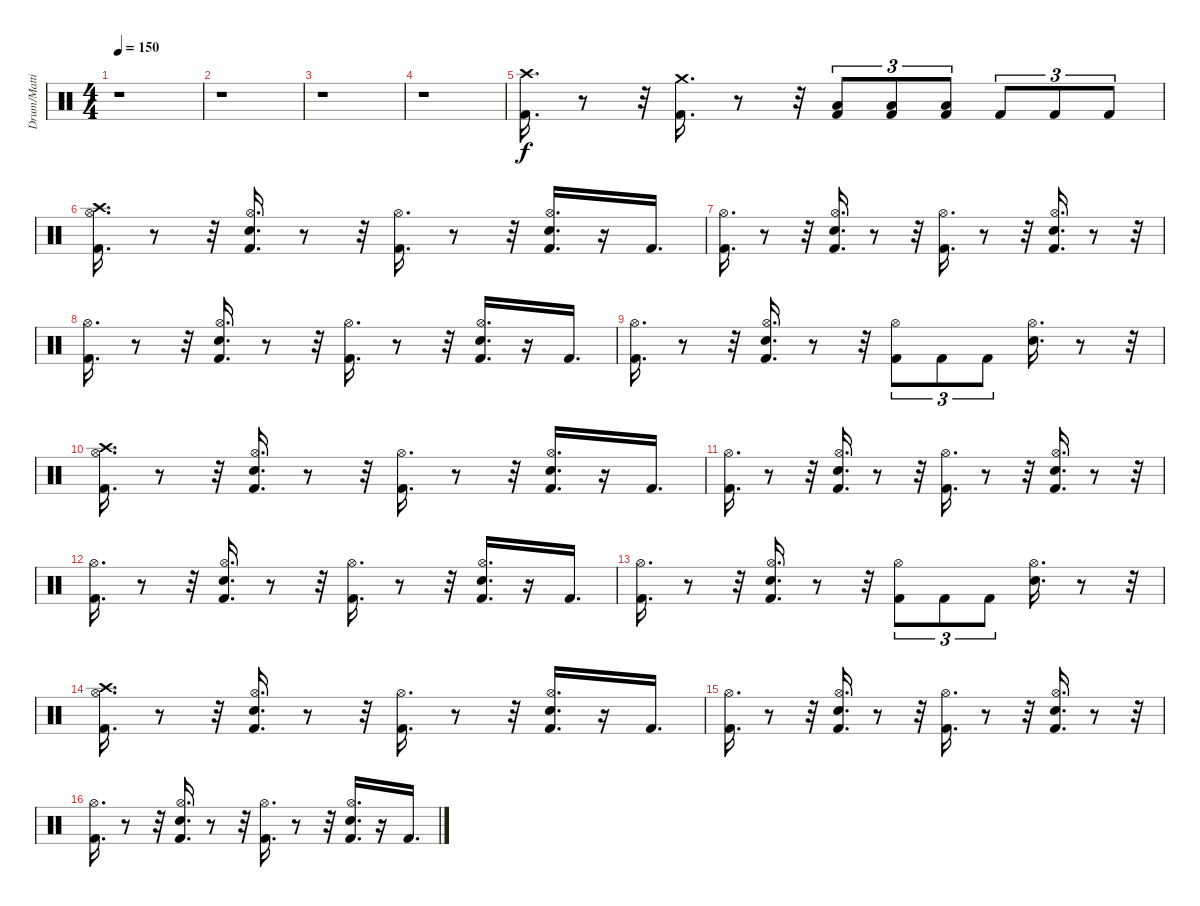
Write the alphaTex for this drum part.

\track ("Drum/Matti" "Drum/Matti") {instrument percussion}
\staff {score}
\articulation defaults
\ts (4 4)
\tempo 150
\clef neutral
\ks c
r.1{dy f} |
r.1 |
r.1 |
r.1 |
("Kick (hit) 2" "Crash high (hit)").16{d} r.8 r.32 ("Kick (hit) 2" "Crash medium (hit)").16{d} r.8 r.32 ("Kick (hit) 2" "Low Tom (hit)").8{tu (3 2)} ("Kick (hit) 2" "Low Tom (hit)").8{tu (3 2)} ("Kick (hit) 2" "Low Tom (hit)").8{tu (3 2)} "Kick (hit) 2".8{tu (3 2)} "Kick (hit) 2".8{tu (3 2)} "Kick (hit) 2".8{tu (3 2)} |
("Kick (hit) 2" "Hi-Hat (open)" "Crash high (hit)").16{d} r.8 r.32 ("Kick (hit) 2" "Hi-Hat (open)" "Electric Snare (hit)").16{d} r.8 r.32 ("Kick (hit) 2" "Hi-Hat (open)").16{d} r.8 r.32 ("Kick (hit) 2" "Hi-Hat (open)" "Electric Snare (hit)").16{d} r.16 "Kick (hit) 2".16{d} |
("Kick (hit) 2" "Hi-Hat (open)").16{d} r.8 r.32 ("Kick (hit) 2" "Hi-Hat (open)" "Electric Snare (hit)").16{d} r.8 r.32 ("Kick (hit) 2" "Hi-Hat (open)").16{d} r.8 r.32 ("Kick (hit) 2" "Hi-Hat (open)" "Electric Snare (hit)").16{d} r.8 r.32 |
("Kick (hit) 2" "Hi-Hat (open)").16{d} r.8 r.32 ("Kick (hit) 2" "Hi-Hat (open)" "Electric Snare (hit)").16{d} r.8 r.32 ("Kick (hit) 2" "Hi-Hat (open)").16{d} r.8 r.32 ("Kick (hit) 2" "Hi-Hat (open)" "Electric Snare (hit)").16{d} r.16 "Kick (hit) 2".16{d} |
("Kick (hit) 2" "Hi-Hat (open)").16{d} r.8 r.32 ("Kick (hit) 2" "Hi-Hat (open)" "Electric Snare (hit)").16{d} r.8 r.32 ("Kick (hit) 2" "Hi-Hat (open)").8{tu (3 2)} "Kick (hit) 2".8{tu (3 2)} "Kick (hit) 2".8{tu (3 2)} ("Hi-Hat (open)" "Electric Snare (hit)").16{d} r.8 r.32 |
("Kick (hit) 2" "Hi-Hat (open)" "Crash high (hit)").16{d} r.8 r.32 ("Kick (hit) 2" "Hi-Hat (open)" "Electric Snare (hit)").16{d} r.8 r.32 ("Kick (hit) 2" "Hi-Hat (open)").16{d} r.8 r.32 ("Kick (hit) 2" "Hi-Hat (open)" "Electric Snare (hit)").16{d} r.16 "Kick (hit) 2".16{d} |
("Kick (hit) 2" "Hi-Hat (open)").16{d} r.8 r.32 ("Kick (hit) 2" "Hi-Hat (open)" "Electric Snare (hit)").16{d} r.8 r.32 ("Kick (hit) 2" "Hi-Hat (open)").16{d} r.8 r.32 ("Kick (hit) 2" "Hi-Hat (open)" "Electric Snare (hit)").16{d} r.8 r.32 |
("Kick (hit) 2" "Hi-Hat (open)").16{d} r.8 r.32 ("Kick (hit) 2" "Hi-Hat (open)" "Electric Snare (hit)").16{d} r.8 r.32 ("Kick (hit) 2" "Hi-Hat (open)").16{d} r.8 r.32 ("Kick (hit) 2" "Hi-Hat (open)" "Electric Snare (hit)").16{d} r.16 "Kick (hit) 2".16{d} |
("Kick (hit) 2" "Hi-Hat (open)").16{d} r.8 r.32 ("Kick (hit) 2" "Hi-Hat (open)" "Electric Snare (hit)").16{d} r.8 r.32 ("Kick (hit) 2" "Hi-Hat (open)").8{tu (3 2)} "Kick (hit) 2".8{tu (3 2)} "Kick (hit) 2".8{tu (3 2)} ("Hi-Hat (open)" "Electric Snare (hit)").16{d} r.8 r.32 |
("Kick (hit) 2" "Hi-Hat (open)" "Crash high (hit)").16{d} r.8 r.32 ("Kick (hit) 2" "Hi-Hat (open)" "Electric Snare (hit)").16{d} r.8 r.32 ("Kick (hit) 2" "Hi-Hat (open)").16{d} r.8 r.32 ("Kick (hit) 2" "Hi-Hat (open)" "Electric Snare (hit)").16{d} r.16 "Kick (hit) 2".16{d} |
("Kick (hit) 2" "Hi-Hat (open)").16{d} r.8 r.32 ("Kick (hit) 2" "Hi-Hat (open)" "Electric Snare (hit)").16{d} r.8 r.32 ("Kick (hit) 2" "Hi-Hat (open)").16{d} r.8 r.32 ("Kick (hit) 2" "Hi-Hat (open)" "Electric Snare (hit)").16{d} r.8 r.32 |
("Kick (hit) 2" "Hi-Hat (open)").16{d} r.8 r.32 ("Kick (hit) 2" "Hi-Hat (open)" "Electric Snare (hit)").16{d} r.8 r.32 ("Kick (hit) 2" "Hi-Hat (open)").16{d} r.8 r.32 ("Kick (hit) 2" "Hi-Hat (open)" "Electric Snare (hit)").16{d} r.16 "Kick (hit) 2".16{d}
